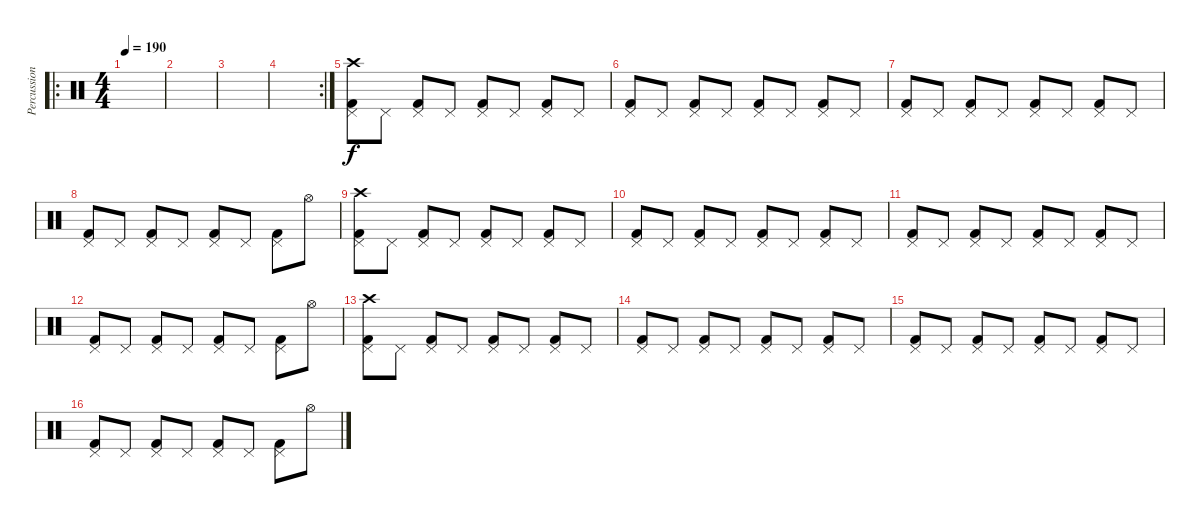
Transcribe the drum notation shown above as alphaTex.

\track ("Percussions" "Percussion") {instrument percussion}
\staff {score}
\articulation defaults
\ro
\ts (4 4)
\tempo 190
\clef neutral
\ks c
|
|
|
\rc 2
|
("Crash high (hit)" "Pedal Hi-Hat (hit)" "Kick (hit) 2").8 "Pedal Hi-Hat (hit)".8 ("Pedal Hi-Hat (hit)" "Kick (hit) 2").8 "Pedal Hi-Hat (hit)".8 ("Pedal Hi-Hat (hit)" "Kick (hit) 2").8 "Pedal Hi-Hat (hit)".8 ("Pedal Hi-Hat (hit)" "Kick (hit) 2").8 "Pedal Hi-Hat (hit)".8 |
("Pedal Hi-Hat (hit)" "Kick (hit) 2").8 "Pedal Hi-Hat (hit)".8 ("Pedal Hi-Hat (hit)" "Kick (hit) 2").8 "Pedal Hi-Hat (hit)".8 ("Pedal Hi-Hat (hit)" "Kick (hit) 2").8 "Pedal Hi-Hat (hit)".8 ("Pedal Hi-Hat (hit)" "Kick (hit) 2").8 "Pedal Hi-Hat (hit)".8 |
("Pedal Hi-Hat (hit)" "Kick (hit) 2").8 "Pedal Hi-Hat (hit)".8 ("Pedal Hi-Hat (hit)" "Kick (hit) 2").8 "Pedal Hi-Hat (hit)".8 ("Pedal Hi-Hat (hit)" "Kick (hit) 2").8 "Pedal Hi-Hat (hit)".8 ("Pedal Hi-Hat (hit)" "Kick (hit) 2").8 "Pedal Hi-Hat (hit)".8 |
("Pedal Hi-Hat (hit)" "Kick (hit) 2").8 "Pedal Hi-Hat (hit)".8 ("Pedal Hi-Hat (hit)" "Kick (hit) 2").8 "Pedal Hi-Hat (hit)".8 ("Pedal Hi-Hat (hit)" "Kick (hit) 2").8 "Pedal Hi-Hat (hit)".8 ("Pedal Hi-Hat (hit)" "Kick (hit) 2").8 "Hi-Hat (open)".8 |
("Crash high (hit)" "Pedal Hi-Hat (hit)" "Kick (hit) 2").8 "Pedal Hi-Hat (hit)".8 ("Pedal Hi-Hat (hit)" "Kick (hit) 2").8 "Pedal Hi-Hat (hit)".8 ("Pedal Hi-Hat (hit)" "Kick (hit) 2").8 "Pedal Hi-Hat (hit)".8 ("Pedal Hi-Hat (hit)" "Kick (hit) 2").8 "Pedal Hi-Hat (hit)".8 |
("Pedal Hi-Hat (hit)" "Kick (hit) 2").8 "Pedal Hi-Hat (hit)".8 ("Pedal Hi-Hat (hit)" "Kick (hit) 2").8 "Pedal Hi-Hat (hit)".8 ("Pedal Hi-Hat (hit)" "Kick (hit) 2").8 "Pedal Hi-Hat (hit)".8 ("Pedal Hi-Hat (hit)" "Kick (hit) 2").8 "Pedal Hi-Hat (hit)".8 |
("Pedal Hi-Hat (hit)" "Kick (hit) 2").8 "Pedal Hi-Hat (hit)".8 ("Pedal Hi-Hat (hit)" "Kick (hit) 2").8 "Pedal Hi-Hat (hit)".8 ("Pedal Hi-Hat (hit)" "Kick (hit) 2").8 "Pedal Hi-Hat (hit)".8 ("Pedal Hi-Hat (hit)" "Kick (hit) 2").8 "Pedal Hi-Hat (hit)".8 |
("Pedal Hi-Hat (hit)" "Kick (hit) 2").8 "Pedal Hi-Hat (hit)".8 ("Pedal Hi-Hat (hit)" "Kick (hit) 2").8 "Pedal Hi-Hat (hit)".8 ("Pedal Hi-Hat (hit)" "Kick (hit) 2").8 "Pedal Hi-Hat (hit)".8 ("Pedal Hi-Hat (hit)" "Kick (hit) 2").8 "Hi-Hat (open)".8 |
("Crash high (hit)" "Pedal Hi-Hat (hit)" "Kick (hit) 2").8 "Pedal Hi-Hat (hit)".8 ("Pedal Hi-Hat (hit)" "Kick (hit) 2").8 "Pedal Hi-Hat (hit)".8 ("Pedal Hi-Hat (hit)" "Kick (hit) 2").8 "Pedal Hi-Hat (hit)".8 ("Pedal Hi-Hat (hit)" "Kick (hit) 2").8 "Pedal Hi-Hat (hit)".8 |
("Pedal Hi-Hat (hit)" "Kick (hit) 2").8 "Pedal Hi-Hat (hit)".8 ("Pedal Hi-Hat (hit)" "Kick (hit) 2").8 "Pedal Hi-Hat (hit)".8 ("Pedal Hi-Hat (hit)" "Kick (hit) 2").8 "Pedal Hi-Hat (hit)".8 ("Pedal Hi-Hat (hit)" "Kick (hit) 2").8 "Pedal Hi-Hat (hit)".8 |
("Pedal Hi-Hat (hit)" "Kick (hit) 2").8 "Pedal Hi-Hat (hit)".8 ("Pedal Hi-Hat (hit)" "Kick (hit) 2").8 "Pedal Hi-Hat (hit)".8 ("Pedal Hi-Hat (hit)" "Kick (hit) 2").8 "Pedal Hi-Hat (hit)".8 ("Pedal Hi-Hat (hit)" "Kick (hit) 2").8 "Pedal Hi-Hat (hit)".8 |
("Pedal Hi-Hat (hit)" "Kick (hit) 2").8 "Pedal Hi-Hat (hit)".8 ("Pedal Hi-Hat (hit)" "Kick (hit) 2").8 "Pedal Hi-Hat (hit)".8 ("Pedal Hi-Hat (hit)" "Kick (hit) 2").8 "Pedal Hi-Hat (hit)".8 ("Pedal Hi-Hat (hit)" "Kick (hit) 2").8 "Hi-Hat (open)".8
